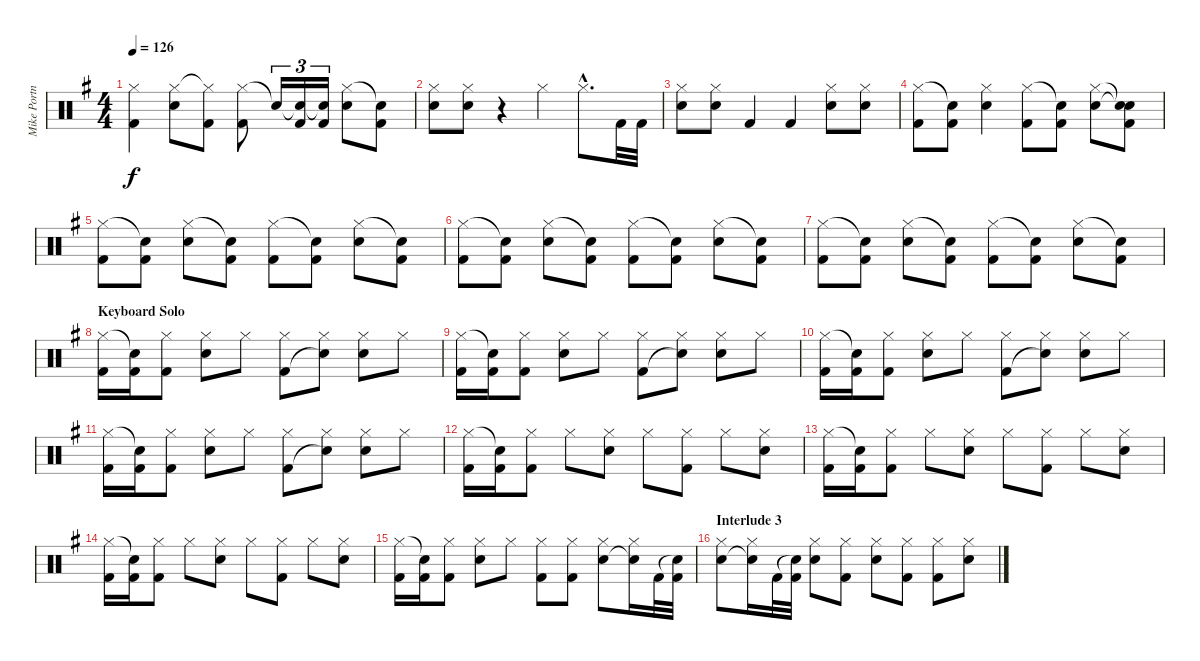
\track ("Mike Portnoy" "Mike Portn") {instrument percussion}
\staff {score}
\articulation defaults
\ts (4 4)
\tempo 126
\clef neutral
\ks g
("Hi-Hat (closed)" "Kick (hit) 2").4{dy f} ("Hi-Hat (closed)" "Snare (hit) 2").8 ("Hi-Hat (closed)"{t} "Kick (hit) 2").8 ("Hi-Hat (closed)" "Kick (hit) 2").8 "Snare (hit)"{t}.16{tu (3 2)} ("Snare (hit)"{t} "Kick (hit) 2").16{tu (3 2)} ("Snare (hit)"{t} "Kick (hit) 2").16{tu (3 2)} ("Hi-Hat (closed)" "Snare (hit) 2").8 ("Snare (hit)"{t} "Kick (hit) 2").8 |
("Hi-Hat (closed)" "Snare (hit) 2").8 ("Hi-Hat (closed)" "Snare (hit) 2").8 r.4 "Hi-Hat (closed)".4 "Hi-Hat (closed)"{hac}.8{d} "Kick (hit) 2".32 "Kick (hit) 2".32 |
("Hi-Hat (closed)" "Snare (hit) 2").8 ("Hi-Hat (closed)" "Snare (hit) 2").8 "Kick (hit) 2".4 "Kick (hit) 2".4 ("Hi-Hat (closed)" "Snare (hit) 2").8 ("Hi-Hat (closed)" "Snare (hit) 2").8 |
("Hi-Hat (closed)" "Kick (hit) 2").8 ("Snare (hit)"{t} "Kick (hit) 2").8 ("Hi-Hat (closed)" "Snare (hit) 2").4 ("Hi-Hat (closed)" "Kick (hit) 2").8 ("Snare (hit)"{t} "Kick (hit) 2").8 ("Hi-Hat (closed)" "Snare (hit) 2").8 ("Snare (hit)"{t} "Snare (hit)"{t} "Kick (hit) 2").8 |
("Hi-Hat (closed)" "Kick (hit) 2").8 ("Snare (hit)"{t} "Kick (hit) 2").8 ("Hi-Hat (closed)" "Snare (hit) 2").8 ("Snare (hit)"{t} "Kick (hit) 2").8 ("Hi-Hat (closed)" "Kick (hit) 2").8 ("Snare (hit)"{t} "Kick (hit) 2").8 ("Hi-Hat (closed)" "Snare (hit) 2").8 ("Snare (hit)"{t} "Kick (hit) 2").8 |
("Hi-Hat (closed)" "Kick (hit) 2").8 ("Snare (hit)"{t} "Kick (hit) 2").8 ("Hi-Hat (closed)" "Snare (hit) 2").8 ("Snare (hit)"{t} "Kick (hit) 2").8 ("Hi-Hat (closed)" "Kick (hit) 2").8 ("Snare (hit)"{t} "Kick (hit) 2").8 ("Hi-Hat (closed)" "Snare (hit) 2").8 ("Snare (hit)"{t} "Kick (hit) 2").8 |
("Hi-Hat (closed)" "Kick (hit) 2").8 ("Snare (hit)"{t} "Kick (hit) 2").8 ("Hi-Hat (closed)" "Snare (hit) 2").8 ("Snare (hit)"{t} "Kick (hit) 2").8 ("Hi-Hat (closed)" "Kick (hit) 2").8 ("Snare (hit)"{t} "Kick (hit) 2").8 ("Hi-Hat (closed)" "Snare (hit) 2").8 ("Snare (hit)"{t} "Kick (hit) 2").8 |
\section ("" "Keyboard Solo")
("Hi-Hat (closed)" "Kick (hit) 2").16 ("Snare (hit)"{t} "Kick (hit) 2").16 ("Hi-Hat (closed)" "Kick (hit) 2").8 ("Hi-Hat (closed)" "Snare (hit) 2").8 "Hi-Hat (closed)".8 ("Hi-Hat (closed)" "Kick (hit) 2").8 ("Hi-Hat (closed)" "Snare (hit)"{t}).8 ("Hi-Hat (closed)" "Snare (hit) 2").8 "Hi-Hat (closed)".8 |
("Hi-Hat (closed)" "Kick (hit) 2").16 ("Snare (hit)"{t} "Kick (hit) 2").16 ("Hi-Hat (closed)" "Kick (hit) 2").8 ("Hi-Hat (closed)" "Snare (hit) 2").8 "Hi-Hat (closed)".8 ("Hi-Hat (closed)" "Kick (hit) 2").8 ("Hi-Hat (closed)" "Snare (hit)"{t}).8 ("Hi-Hat (closed)" "Snare (hit) 2").8 "Hi-Hat (closed)".8 |
("Hi-Hat (closed)" "Kick (hit) 2").16 ("Snare (hit)"{t} "Kick (hit) 2").16 ("Hi-Hat (closed)" "Kick (hit) 2").8 ("Hi-Hat (closed)" "Snare (hit) 2").8 "Hi-Hat (closed)".8 ("Hi-Hat (closed)" "Kick (hit) 2").8 ("Hi-Hat (closed)" "Snare (hit)"{t}).8 ("Hi-Hat (closed)" "Snare (hit) 2").8 "Hi-Hat (closed)".8 |
("Hi-Hat (closed)" "Kick (hit) 2").16 ("Snare (hit)"{t} "Kick (hit) 2").16 ("Hi-Hat (closed)" "Kick (hit) 2").8 ("Hi-Hat (closed)" "Snare (hit) 2").8 "Hi-Hat (closed)".8 ("Hi-Hat (closed)" "Kick (hit) 2").8 ("Hi-Hat (closed)" "Snare (hit)"{t}).8 ("Hi-Hat (closed)" "Snare (hit) 2").8 "Hi-Hat (closed)".8 |
("Hi-Hat (closed)" "Kick (hit) 2").16 ("Snare (hit)"{t} "Kick (hit) 2").16 ("Hi-Hat (closed)" "Kick (hit) 2").8 "Hi-Hat (closed)".8 ("Hi-Hat (closed)" "Snare (hit) 2").8 "Hi-Hat (closed)".8 ("Hi-Hat (closed)" "Kick (hit) 2").8 "Hi-Hat (closed)".8 ("Hi-Hat (closed)" "Snare (hit) 2").8 |
("Hi-Hat (closed)" "Kick (hit) 2").16 ("Snare (hit)"{t} "Kick (hit) 2").16 ("Hi-Hat (closed)" "Kick (hit) 2").8 "Hi-Hat (closed)".8 ("Hi-Hat (closed)" "Snare (hit) 2").8 "Hi-Hat (closed)".8 ("Hi-Hat (closed)" "Kick (hit) 2").8 "Hi-Hat (closed)".8 ("Hi-Hat (closed)" "Snare (hit) 2").8 |
("Hi-Hat (closed)" "Kick (hit) 2").16 ("Snare (hit)"{t} "Kick (hit) 2").16 ("Hi-Hat (closed)" "Kick (hit) 2").8 "Hi-Hat (closed)".8 ("Hi-Hat (closed)" "Snare (hit) 2").8 "Hi-Hat (closed)".8 ("Hi-Hat (closed)" "Kick (hit) 2").8 "Hi-Hat (closed)".8 ("Hi-Hat (closed)" "Snare (hit) 2").8 |
("Hi-Hat (closed)" "Kick (hit) 2").16 ("Snare (hit)"{t} "Kick (hit) 2").16 ("Hi-Hat (closed)" "Kick (hit) 2").8 ("Hi-Hat (closed)" "Snare (hit) 2").8 "Hi-Hat (closed)".8 ("Hi-Hat (closed)" "Kick (hit) 2").8 ("Hi-Hat (closed)" "Kick (hit) 2").8 ("Hi-Hat (closed)" "Snare (hit) 2").8 ("Hi-Hat (closed)" "Snare (hit)"{t}).16 "Kick (hit) 2".32 ("Snare (hit)"{t} "Kick (hit) 2").32 |
\section ("" "Interlude 3")
("Hi-Hat (closed)" "Snare (hit) 2").8 ("Hi-Hat (closed)" "Snare (hit)"{t}).16 "Kick (hit) 2".32 ("Snare (hit)"{t} "Kick (hit) 2").32 ("Hi-Hat (closed)" "Snare (hit) 2").8 ("Hi-Hat (closed)" "Kick (hit) 2").8 ("Hi-Hat (closed)" "Snare (hit) 2").8 ("Hi-Hat (closed)" "Kick (hit) 2").8 ("Hi-Hat (closed)" "Kick (hit) 2").8 ("Hi-Hat (closed)" "Snare (hit) 2").8
